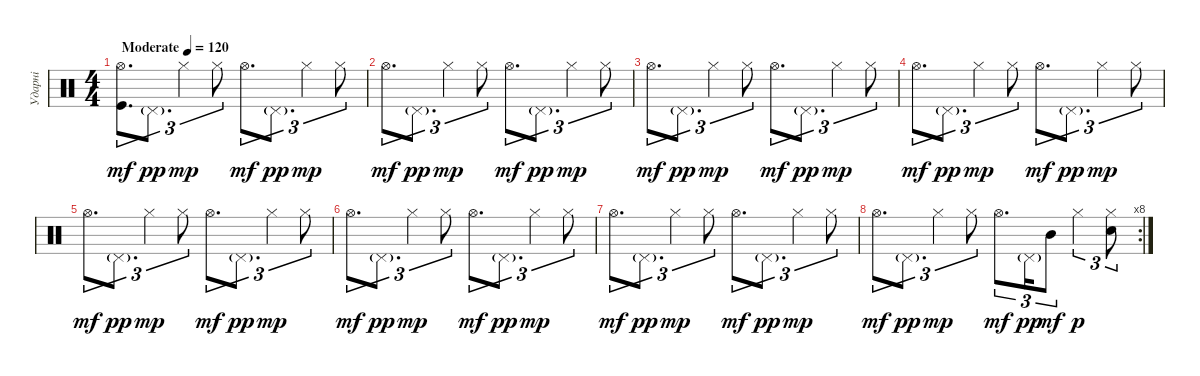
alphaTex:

\track ("Ударні" "Ударні") {instrument percussion}
\staff {score}
\articulation defaults
\ts (4 4)
\tempo (120 "Moderate")
\clef neutral
\ks c
("Hi-Hat (open)" "Kick (hit)").8{d tu (3 2) dy mf} "Pedal Hi-Hat (hit)"{g}.8{d tu (3 2) dy pp} "Hi-Hat (closed)".4{tu (3 2) dy mp} "Hi-Hat (closed)".8{tu (3 2)} "Hi-Hat (open)".8{d tu (3 2) dy mf} "Pedal Hi-Hat (hit)"{g}.8{d tu (3 2) dy pp} "Hi-Hat (closed)".4{tu (3 2) dy mp} "Hi-Hat (closed)".8{tu (3 2)} |
"Hi-Hat (open)".8{d tu (3 2) dy mf} "Pedal Hi-Hat (hit)"{g}.8{d tu (3 2) dy pp} "Hi-Hat (closed)".4{tu (3 2) dy mp} "Hi-Hat (closed)".8{tu (3 2)} "Hi-Hat (open)".8{d tu (3 2) dy mf} "Pedal Hi-Hat (hit)"{g}.8{d tu (3 2) dy pp} "Hi-Hat (closed)".4{tu (3 2) dy mp} "Hi-Hat (closed)".8{tu (3 2)} |
"Hi-Hat (open)".8{d tu (3 2) dy mf} "Pedal Hi-Hat (hit)"{g}.8{d tu (3 2) dy pp} "Hi-Hat (closed)".4{tu (3 2) dy mp} "Hi-Hat (closed)".8{tu (3 2)} "Hi-Hat (open)".8{d tu (3 2) dy mf} "Pedal Hi-Hat (hit)"{g}.8{d tu (3 2) dy pp} "Hi-Hat (closed)".4{tu (3 2) dy mp} "Hi-Hat (closed)".8{tu (3 2)} |
"Hi-Hat (open)".8{d tu (3 2) dy mf} "Pedal Hi-Hat (hit)"{g}.8{d tu (3 2) dy pp} "Hi-Hat (closed)".4{tu (3 2) dy mp} "Hi-Hat (closed)".8{tu (3 2)} "Hi-Hat (open)".8{d tu (3 2) dy mf} "Pedal Hi-Hat (hit)"{g}.8{d tu (3 2) dy pp} "Hi-Hat (closed)".4{tu (3 2) dy mp} "Hi-Hat (closed)".8{tu (3 2)} |
"Hi-Hat (open)".8{d tu (3 2) dy mf} "Pedal Hi-Hat (hit)"{g}.8{d tu (3 2) dy pp} "Hi-Hat (closed)".4{tu (3 2) dy mp} "Hi-Hat (closed)".8{tu (3 2)} "Hi-Hat (open)".8{d tu (3 2) dy mf} "Pedal Hi-Hat (hit)"{g}.8{d tu (3 2) dy pp} "Hi-Hat (closed)".4{tu (3 2) dy mp} "Hi-Hat (closed)".8{tu (3 2)} |
"Hi-Hat (open)".8{d tu (3 2) dy mf} "Pedal Hi-Hat (hit)"{g}.8{d tu (3 2) dy pp} "Hi-Hat (closed)".4{tu (3 2) dy mp} "Hi-Hat (closed)".8{tu (3 2)} "Hi-Hat (open)".8{d tu (3 2) dy mf} "Pedal Hi-Hat (hit)"{g}.8{d tu (3 2) dy pp} "Hi-Hat (closed)".4{tu (3 2) dy mp} "Hi-Hat (closed)".8{tu (3 2)} |
"Hi-Hat (open)".8{d tu (3 2) dy mf} "Pedal Hi-Hat (hit)"{g}.8{d tu (3 2) dy pp} "Hi-Hat (closed)".4{tu (3 2) dy mp} "Hi-Hat (closed)".8{tu (3 2)} "Hi-Hat (open)".8{d tu (3 2) dy mf} "Pedal Hi-Hat (hit)"{g}.8{d tu (3 2) dy pp} "Hi-Hat (closed)".4{tu (3 2) dy mp} "Hi-Hat (closed)".8{tu (3 2)} |
\rc 8 "Hi-Hat (open)".8{d tu (3 2) dy mf} "Pedal Hi-Hat (hit)"{g}.8{d tu (3 2) dy pp} "Hi-Hat (closed)".4{tu (3 2) dy mp} "Hi-Hat (closed)".8{tu (3 2)} "Hi-Hat (open)".8{d tu (3 2) dy mf} "Pedal Hi-Hat (hit)"{g}.16{tu (3 2) dy pp} "Mid Tom (hit)".8{tu (3 2) dy mf} "Hi-Hat (closed)".4{tu (3 2) dy p}
("Hi-Hat (closed)" "Electric Snare (hit)").8{tu (3 2)}
